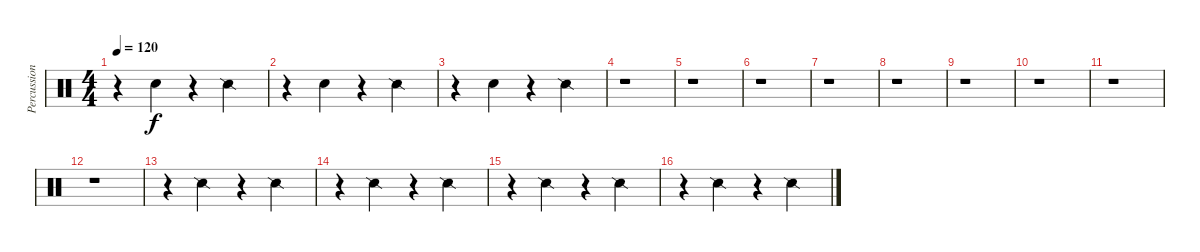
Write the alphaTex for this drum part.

\track ("Percussions" "Percussion") {instrument percussion}
\staff {score}
\articulation defaults
\ts (4 4)
\tempo 120
\clef neutral
\ks c
r.4{dy f} "Hand Clap (hit)".4 r.4 "Snare (side stick) 2".4 |
r.4 "Hand Clap (hit)".4 r.4 "Snare (side stick) 2".4 |
r.4 "Hand Clap (hit)".4 r.4 "Snare (side stick) 2".4 |
r.1 |
r.1 |
r.1 |
r.1 |
r.1 |
r.1 |
r.1 |
r.1 |
r.1 |
r.4 "Snare (side stick) 2".4 r.4 "Snare (side stick) 2".4 |
r.4 "Snare (side stick) 2".4 r.4 "Snare (side stick) 2".4 |
r.4 "Snare (side stick) 2".4 r.4 "Snare (side stick) 2".4 |
r.4 "Snare (side stick) 2".4 r.4 "Snare (side stick) 2".4
